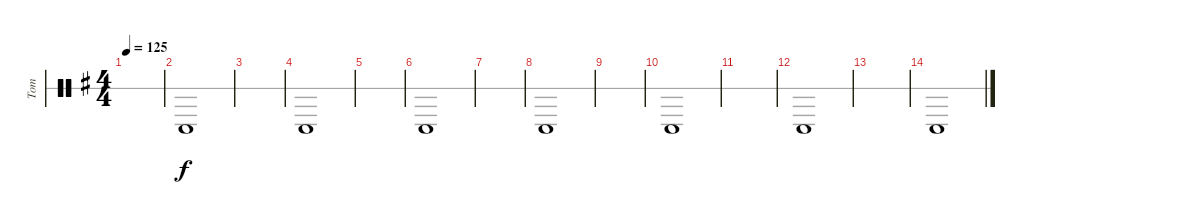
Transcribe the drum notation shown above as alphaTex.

\defaultSystemsLayout 4
\bracketExtendMode groupsimilarinstruments
\otherSystemsTrackNameOrientation horizontal
\track ("Melodic Tom" "Tom") {instrument percussion}
\staff {score 1}
\articulation defaults
\ts (4 4)
\tempo 125
\clef neutral
\scale
0.333333
\ks g
|
\scale
0.333333 "Timbale high (hit)"{acc forcenatural}.1{beam Down} |
\scale
0.333333 |
\scale
0.333333 "Timbale high (hit)"{acc forcenatural}.1{beam Down} |
\scale
0.333333 |
\scale
0.333333 "Timbale high (hit)"{acc forcenatural}.1{beam Down} |
\scale
0.333333 |
\scale
0.333333 "Timbale high (hit)"{acc forcenatural}.1{beam Down} |
\scale
0.333333 |
\scale
0.333333 "Timbale high (hit)"{acc forcenatural}.1{beam Down} |
\scale
0.333333 |
\scale
0.333333 "Timbale high (hit)"{acc forcenatural}.1{beam Down} |
\scale
0.333333 |
\scale
0.333333 "Timbale high (hit)"{acc forcenatural}.1{beam Down} |
\scale
0.333333 |
\scale
0.333333
